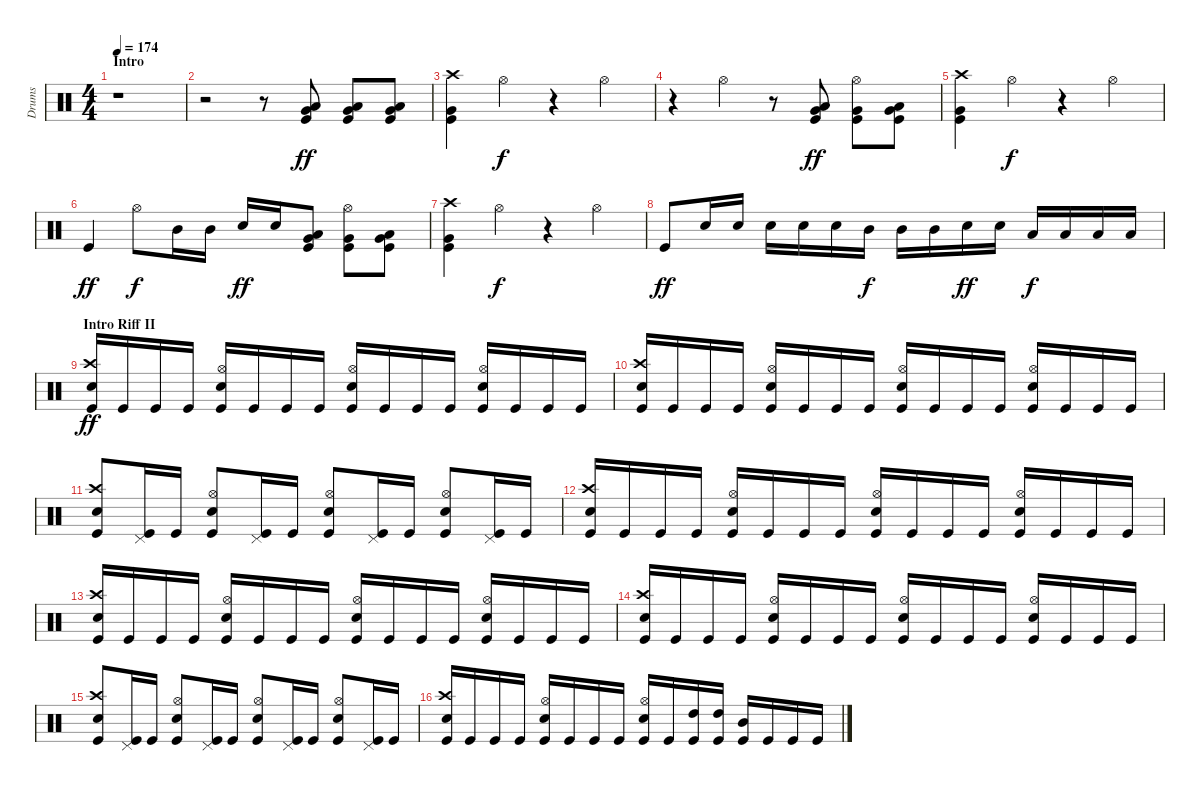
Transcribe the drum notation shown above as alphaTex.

\track ("Drums" "Drums") {instrument percussion}
\staff {score}
\articulation defaults
\ts (4 4)
\section ("" "Intro")
\tempo 174
\clef neutral
\ks c
r.1{dy ff} |
r.2 r.8 ("Low Tom (hit)" "Very Low Tom (hit)" "Kick (hit)").8 ("Low Tom (hit)" "Very Low Tom (hit)" "Kick (hit)").8 ("Low Tom (hit)" "Very Low Tom (hit)" "Kick (hit)").8 |
("Crash high (hit)" "Very Low Tom (hit)" "Kick (hit)").4 "Hi-Hat (open)".4{dy f} r.4 "Hi-Hat (open)".4 |
r.4 "Hi-Hat (open)".4 r.8 ("Low Tom (hit)" "Very Low Tom (hit)" "Kick (hit)").8{dy ff} ("Hi-Hat (open)" "Very Low Tom (hit)" "Kick (hit)").8 ("Low Tom (hit)" "Very Low Tom (hit)" "Kick (hit)").8 |
("Crash high (hit)" "Very Low Tom (hit)" "Kick (hit)").4 "Hi-Hat (open)".4{dy f} r.4 "Hi-Hat (open)".4 |
"Kick (hit)".4{dy ff} "Hi-Hat (open)".8{dy f} "Mid Tom (hit)".16 "Mid Tom (hit)".16 "Electric Snare (hit)".16{dy ff} "Electric Snare (hit)".16 ("Low Tom (hit)" "Very Low Tom (hit)" "Kick (hit)").8 ("Hi-Hat (open)" "Very Low Tom (hit)" "Kick (hit)").8 ("Low Tom (hit)" "Very Low Tom (hit)" "Kick (hit)").8 |
("Crash high (hit)" "Very Low Tom (hit)" "Kick (hit)").4 "Hi-Hat (open)".4{dy f} r.4 "Hi-Hat (open)".4 |
"Kick (hit)".8{dy ff} "Electric Snare (hit)".16 "Electric Snare (hit)".16 "Electric Snare (hit)".16 "Electric Snare (hit)".16 "Electric Snare (hit)".16 "Mid Tom (hit)".16{dy f} "Mid Tom (hit)".16 "Mid Tom (hit)".16 "Electric Snare (hit)".16{dy ff} "Electric Snare (hit)".16 "Low Tom (hit)".16{dy f} "Low Tom (hit)".16 "Low Tom (hit)".16 "Low Tom (hit)".16 |
\section ("" "Intro Riff II")
("Crash high (hit)" "Electric Snare (hit)" "Kick (hit)").16{dy ff} "Kick (hit)".16 "Kick (hit)".16 "Kick (hit)".16 ("Hi-Hat (open)" "Electric Snare (hit)" "Kick (hit)").16 "Kick (hit)".16 "Kick (hit)".16 "Kick (hit)".16 ("Hi-Hat (open)" "Electric Snare (hit)" "Kick (hit)").16 "Kick (hit)".16 "Kick (hit)".16 "Kick (hit)".16 ("Hi-Hat (open)" "Electric Snare (hit)" "Kick (hit)").16 "Kick (hit)".16 "Kick (hit)".16 "Kick (hit)".16 |
("Crash high (hit)" "Electric Snare (hit)" "Kick (hit)").16 "Kick (hit)".16 "Kick (hit)".16 "Kick (hit)".16 ("Hi-Hat (open)" "Electric Snare (hit)" "Kick (hit)").16 "Kick (hit)".16 "Kick (hit)".16 "Kick (hit)".16 ("Hi-Hat (open)" "Electric Snare (hit)" "Kick (hit)").16 "Kick (hit)".16 "Kick (hit)".16 "Kick (hit)".16 ("Hi-Hat (open)" "Electric Snare (hit)" "Kick (hit)").16 "Kick (hit)".16 "Kick (hit)".16 "Kick (hit)".16 |
("Crash high (hit)" "Electric Snare (hit)" "Kick (hit)").8 ("Pedal Hi-Hat (hit)" "Kick (hit)").16 "Kick (hit)".16 ("Hi-Hat (open)" "Electric Snare (hit)" "Kick (hit)").8 ("Pedal Hi-Hat (hit)" "Kick (hit)").16 "Kick (hit)".16 ("Hi-Hat (open)" "Electric Snare (hit)" "Kick (hit)").8 ("Pedal Hi-Hat (hit)" "Kick (hit)").16 "Kick (hit)".16 ("Hi-Hat (open)" "Electric Snare (hit)" "Kick (hit)").8 ("Pedal Hi-Hat (hit)" "Kick (hit)").16 "Kick (hit)".16 |
("Crash high (hit)" "Electric Snare (hit)" "Kick (hit)").16 "Kick (hit)".16 "Kick (hit)".16 "Kick (hit)".16 ("Hi-Hat (open)" "Electric Snare (hit)" "Kick (hit)").16 "Kick (hit)".16 "Kick (hit)".16 "Kick (hit)".16 ("Hi-Hat (open)" "Electric Snare (hit)" "Kick (hit)").16 "Kick (hit)".16 "Kick (hit)".16 "Kick (hit)".16 ("Hi-Hat (open)" "Electric Snare (hit)" "Kick (hit)").16 "Kick (hit)".16 "Kick (hit)".16 "Kick (hit)".16 |
("Crash high (hit)" "Electric Snare (hit)" "Kick (hit)").16 "Kick (hit)".16 "Kick (hit)".16 "Kick (hit)".16 ("Hi-Hat (open)" "Electric Snare (hit)" "Kick (hit)").16 "Kick (hit)".16 "Kick (hit)".16 "Kick (hit)".16 ("Hi-Hat (open)" "Electric Snare (hit)" "Kick (hit)").16 "Kick (hit)".16 "Kick (hit)".16 "Kick (hit)".16 ("Hi-Hat (open)" "Electric Snare (hit)" "Kick (hit)").16 "Kick (hit)".16 "Kick (hit)".16 "Kick (hit)".16 |
("Crash high (hit)" "Electric Snare (hit)" "Kick (hit)").16 "Kick (hit)".16 "Kick (hit)".16 "Kick (hit)".16 ("Hi-Hat (open)" "Electric Snare (hit)" "Kick (hit)").16 "Kick (hit)".16 "Kick (hit)".16 "Kick (hit)".16 ("Hi-Hat (open)" "Electric Snare (hit)" "Kick (hit)").16 "Kick (hit)".16 "Kick (hit)".16 "Kick (hit)".16 ("Hi-Hat (open)" "Electric Snare (hit)" "Kick (hit)").16 "Kick (hit)".16 "Kick (hit)".16 "Kick (hit)".16 |
("Crash high (hit)" "Electric Snare (hit)" "Kick (hit)").8 ("Pedal Hi-Hat (hit)" "Kick (hit)").16 "Kick (hit)".16 ("Hi-Hat (open)" "Electric Snare (hit)" "Kick (hit)").8 ("Pedal Hi-Hat (hit)" "Kick (hit)").16 "Kick (hit)".16 ("Hi-Hat (open)" "Electric Snare (hit)" "Kick (hit)").8 ("Pedal Hi-Hat (hit)" "Kick (hit)").16 "Kick (hit)".16 ("Hi-Hat (open)" "Electric Snare (hit)" "Kick (hit)").8 ("Pedal Hi-Hat (hit)" "Kick (hit)").16 "Kick (hit)".16 |
("Crash high (hit)" "Electric Snare (hit)" "Kick (hit)").16 "Kick (hit)".16 "Kick (hit)".16 "Kick (hit)".16 ("Hi-Hat (open)" "Electric Snare (hit)" "Kick (hit)").16 "Kick (hit)".16 "Kick (hit)".16 "Kick (hit)".16 ("Hi-Hat (open)" "Electric Snare (hit)" "Kick (hit)").16 "Kick (hit)".16 ("High Tom (hit)" "Kick (hit)").16 ("High Tom (hit)" "Kick (hit)").16 ("Mid Tom (hit)" "Kick (hit)").16 "Kick (hit)".16 "Kick (hit)".16 "Kick (hit)".16
